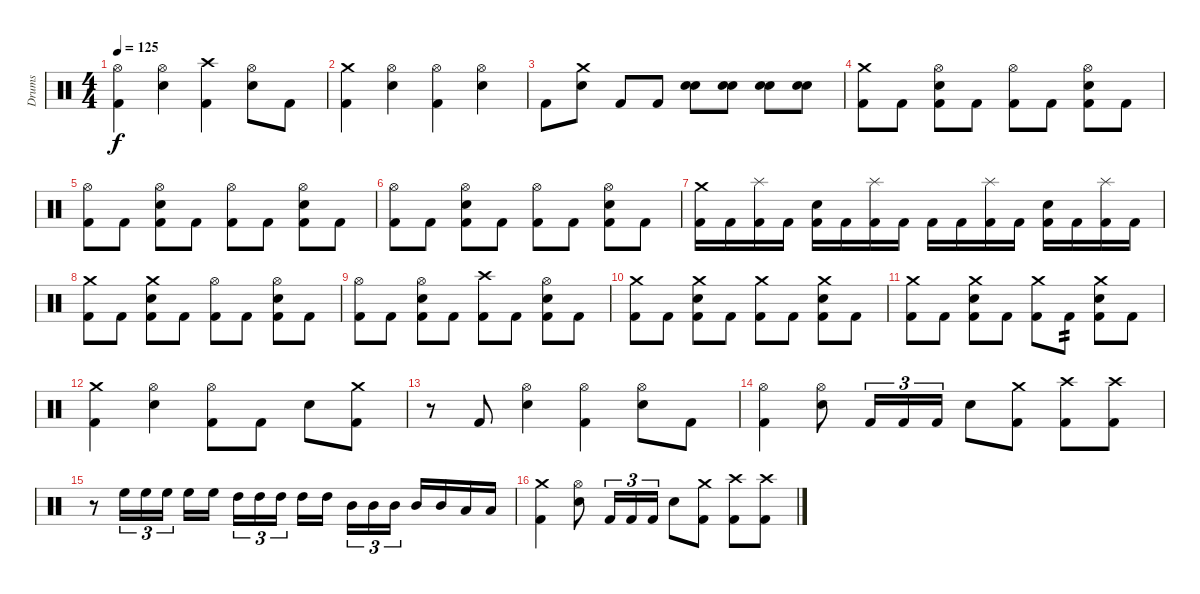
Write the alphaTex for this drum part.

\track ("Drums" "Drums") {instrument percussion}
\staff {score}
\articulation defaults
\ts (4 4)
\tempo 125
\clef neutral
\ks c
("Hi-Hat (open)" "Kick (hit) 2").4{dy f} ("Hi-Hat (open)" "Electric Snare (hit)").4 ("Crash high (hit)" "Kick (hit) 2").4 ("Hi-Hat (open)" "Electric Snare (hit)").8 "Kick (hit) 2".8 |
("Crash medium (hit)" "Kick (hit) 2").4 ("Hi-Hat (open)" "Electric Snare (hit)").4 ("Hi-Hat (open)" "Kick (hit) 2").4 ("Hi-Hat (open)" "Electric Snare (hit)").4 |
"Kick (hit) 2".8 ("Crash medium (hit)" "Electric Snare (hit)").8 "Kick (hit) 2".8 "Kick (hit) 2".8 ("Electric Snare (hit)" "Electric Snare (hit)").8 ("Electric Snare (hit)" "Electric Snare (hit)").8 ("Electric Snare (hit)" "Electric Snare (hit)").8 ("Electric Snare (hit)" "Electric Snare (hit)").8 |
("Crash medium (hit)" "Kick (hit) 2").8 "Kick (hit) 2".8 ("Hi-Hat (open)" "Electric Snare (hit)" "Kick (hit) 2").8 "Kick (hit) 2".8 ("Hi-Hat (open)" "Kick (hit) 2").8 "Kick (hit) 2".8 ("Hi-Hat (open)" "Electric Snare (hit)" "Kick (hit) 2").8 "Kick (hit) 2".8 |
("Hi-Hat (open)" "Kick (hit) 2").8 "Kick (hit) 2".8 ("Hi-Hat (open)" "Electric Snare (hit)" "Kick (hit) 2").8 "Kick (hit) 2".8 ("Hi-Hat (open)" "Kick (hit) 2").8 "Kick (hit) 2".8 ("Hi-Hat (open)" "Electric Snare (hit)" "Kick (hit) 2").8 "Kick (hit) 2".8 |
("Hi-Hat (open)" "Kick (hit) 2").8 "Kick (hit) 2".8 ("Hi-Hat (open)" "Electric Snare (hit)" "Kick (hit) 2").8 "Kick (hit) 2".8 ("Hi-Hat (open)" "Kick (hit) 2").8 "Kick (hit) 2".8 ("Hi-Hat (open)" "Electric Snare (hit)" "Kick (hit) 2").8 "Kick (hit) 2".8 |
("Crash medium (hit)" "Kick (hit) 2").16 "Kick (hit) 2".16 ("Splash (hit)" "Kick (hit) 2").16 "Kick (hit) 2".16 ("Electric Snare (hit)" "Kick (hit) 2").16 "Kick (hit) 2".16 ("Splash (hit)" "Kick (hit) 2").16 "Kick (hit) 2".16 "Kick (hit) 2".16 "Kick (hit) 2".16 ("Splash (hit)" "Kick (hit) 2").16 "Kick (hit) 2".16 ("Electric Snare (hit)" "Kick (hit) 2").16 "Kick (hit) 2".16 ("Splash (hit)" "Kick (hit) 2").16 "Kick (hit) 2".16 |
("Crash medium (hit)" "Kick (hit) 2").8 "Kick (hit) 2".8 ("Crash medium (hit)" "Electric Snare (hit)" "Kick (hit) 2").8 "Kick (hit) 2".8 ("Hi-Hat (open)" "Kick (hit) 2").8 "Kick (hit) 2".8 ("Hi-Hat (open)" "Electric Snare (hit)" "Kick (hit) 2").8 "Kick (hit) 2".8 |
("Hi-Hat (open)" "Kick (hit) 2").8 "Kick (hit) 2".8 ("Hi-Hat (open)" "Electric Snare (hit)" "Kick (hit) 2").8 "Kick (hit) 2".8 ("Crash high (hit)" "Kick (hit) 2").8 "Kick (hit) 2".8 ("Hi-Hat (open)" "Electric Snare (hit)" "Kick (hit) 2").8 "Kick (hit) 2".8 |
("Crash medium (hit)" "Kick (hit) 2").8 "Kick (hit) 2".8 ("Crash medium (hit)" "Electric Snare (hit)" "Kick (hit) 2").8 "Kick (hit) 2".8 ("Crash medium (hit)" "Kick (hit) 2").8 "Kick (hit) 2".8 ("Crash medium (hit)" "Electric Snare (hit)" "Kick (hit) 2").8 "Kick (hit) 2".8 |
("Crash medium (hit)" "Kick (hit) 2").8 "Kick (hit) 2".8 ("Crash medium (hit)" "Electric Snare (hit)" "Kick (hit) 2").8 "Kick (hit) 2".8 ("Crash medium (hit)" "Kick (hit) 2").8 "Kick (hit) 2".8{tp 2} ("Crash medium (hit)" "Electric Snare (hit)" "Kick (hit) 2").8 "Kick (hit) 2".8 |
("Crash medium (hit)" "Kick (hit) 2").4 ("Hi-Hat (open)" "Electric Snare (hit)").4 ("Hi-Hat (open)" "Kick (hit) 2").8 "Kick (hit) 2".8 "Electric Snare (hit)".8 ("Crash medium (hit)" "Kick (hit) 2").8 |
r.8 "Kick (hit) 2".8 ("Hi-Hat (open)" "Electric Snare (hit)").4 ("Hi-Hat (open)" "Kick (hit) 2").4 ("Hi-Hat (open)" "Electric Snare (hit)").8 "Kick (hit) 2".8 |
("Hi-Hat (open)" "Kick (hit) 2").4 ("Hi-Hat (open)" "Electric Snare (hit)").8 "Kick (hit) 2".16{tu (3 2)} "Kick (hit) 2".16{tu (3 2)} "Kick (hit) 2".16{tu (3 2)} "Electric Snare (hit)".8 ("Crash medium (hit)" "Kick (hit) 2").8 ("Crash high (hit)" "Kick (hit) 2").8 ("Crash high (hit)" "Kick (hit) 2").8 |
r.8 "High Floor Tom (hit)".16{tu (3 2)} "High Floor Tom (hit)".16{tu (3 2)} "High Floor Tom (hit)".16{tu (3 2)} "High Floor Tom (hit)".16 "High Floor Tom (hit)".16{beam splitsecondary} "High Tom (hit)".16{tu (3 2)} "High Tom (hit)".16{tu (3 2)} "High Tom (hit)".16{tu (3 2)} "High Tom (hit)".16 "High Tom (hit)".16{beam splitsecondary} "Mid Tom (hit)".16{tu (3 2)} "Mid Tom (hit)".16{tu (3 2)} "Mid Tom (hit)".16{tu (3 2)} "Mid Tom (hit)".16 "Mid Tom (hit)".16 "Low Tom (hit)".16 "Low Tom (hit)".16 |
("Crash medium (hit)" "Kick (hit) 2").4 ("Hi-Hat (open)" "Electric Snare (hit)").8 "Kick (hit) 2".16{tu (3 2)} "Kick (hit) 2".16{tu (3 2)} "Kick (hit) 2".16{tu (3 2)} "Electric Snare (hit)".8 ("Crash medium (hit)" "Kick (hit) 2").8 ("Crash high (hit)" "Kick (hit) 2").8 ("Crash high (hit)" "Kick (hit) 2").8
